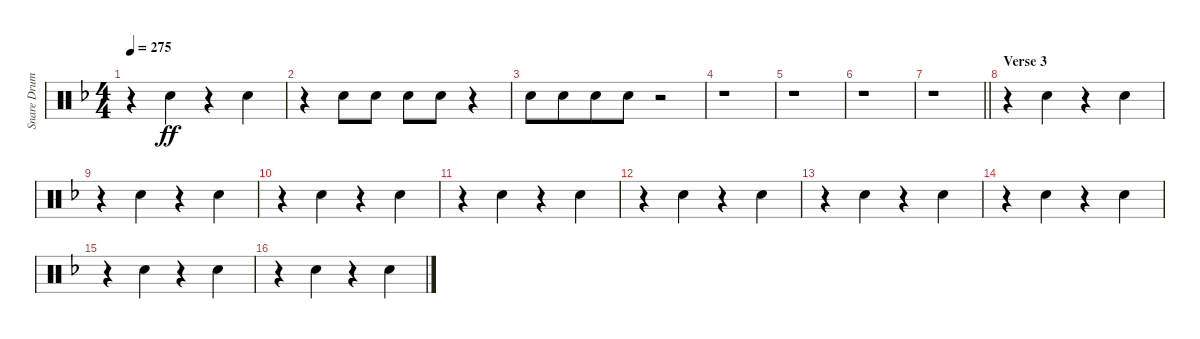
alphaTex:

\track ("Snare Drum" "Snare Drum") {instrument percussion}
\staff {score}
\articulation defaults
\ts (4 4)
\tempo 275
\clef neutral
\ks dminor
r.4{dy ff} "Electric Snare (hit)".4 r.4 "Electric Snare (hit)".4 |
r.4 "Electric Snare (hit)".8 "Electric Snare (hit)".8 "Electric Snare (hit)".8 "Electric Snare (hit)".8 r.4 |
"Electric Snare (hit)".8 "Electric Snare (hit)".8{beam merge} "Electric Snare (hit)".8 "Electric Snare (hit)".8 r.2 |
r.1 |
r.1 |
r.1 |
\barLineRight lightlight
r.1 |
\section ("" "Verse 3")
r.4 "Electric Snare (hit)".4 r.4 "Electric Snare (hit)".4 |
r.4 "Electric Snare (hit)".4 r.4 "Electric Snare (hit)".4 |
r.4 "Electric Snare (hit)".4 r.4 "Electric Snare (hit)".4 |
r.4 "Electric Snare (hit)".4 r.4 "Electric Snare (hit)".4 |
r.4 "Electric Snare (hit)".4 r.4 "Electric Snare (hit)".4 |
r.4 "Electric Snare (hit)".4 r.4 "Electric Snare (hit)".4 |
r.4 "Electric Snare (hit)".4 r.4 "Electric Snare (hit)".4 |
r.4 "Electric Snare (hit)".4 r.4 "Electric Snare (hit)".4 |
r.4 "Electric Snare (hit)".4 r.4 "Electric Snare (hit)".4
